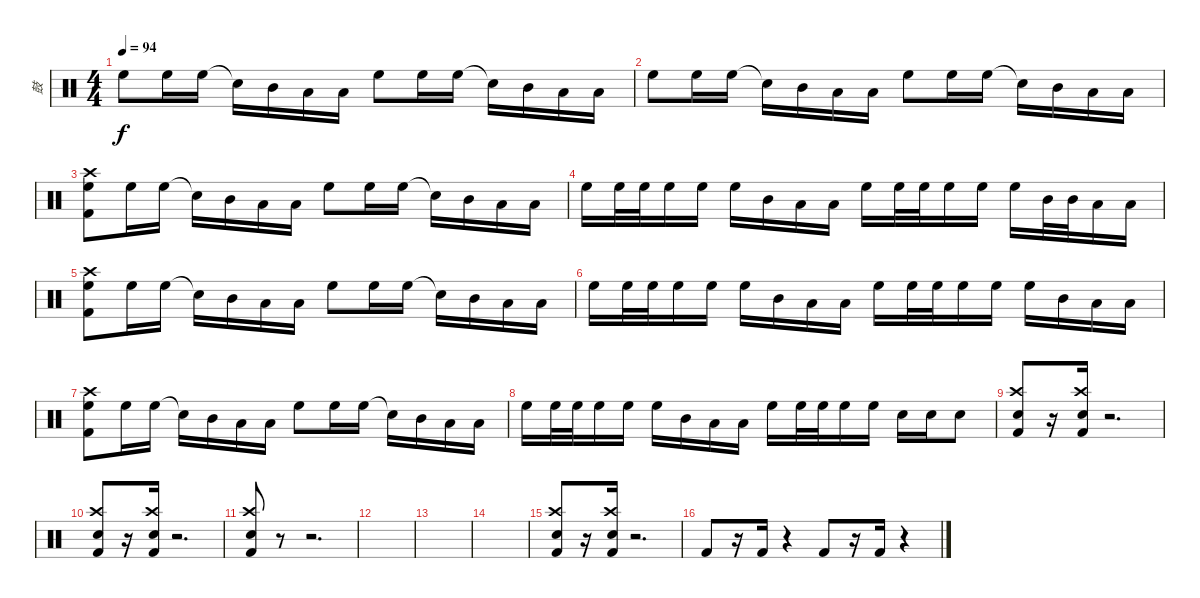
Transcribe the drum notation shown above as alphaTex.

\track ("鼓" "鼓") {instrument percussion}
\staff {score}
\articulation defaults
\ts (4 4)
\tempo 94
\clef neutral
\ks c "High Floor Tom (hit)".8{dy f} "High Floor Tom (hit)".16 "High Floor Tom (hit)".16 "Snare (hit)"{t}.16 "Mid Tom (hit)".16 "Low Tom (hit)".16 "Low Floor Tom (hit)".16 "High Floor Tom (hit)".8 "High Floor Tom (hit)".16 "High Floor Tom (hit)".16 "Snare (hit)"{t}.16 "Mid Tom (hit)".16 "Low Tom (hit)".16 "Low Floor Tom (hit)".16
|
"High Floor Tom (hit)".8 "High Floor Tom (hit)".16 "High Floor Tom (hit)".16 "Snare (hit)"{t}.16 "Mid Tom (hit)".16 "Low Tom (hit)".16 "Low Floor Tom (hit)".16 "High Floor Tom (hit)".8 "High Floor Tom (hit)".16 "High Floor Tom (hit)".16 "Snare (hit)"{t}.16 "Mid Tom (hit)".16 "Low Tom (hit)".16 "Low Floor Tom (hit)".16 |
("Crash high (hit)" "High Floor Tom (hit)" "Kick (hit) 2").8 "High Floor Tom (hit)".16 "High Floor Tom (hit)".16 "Snare (hit)"{t}.16 "Mid Tom (hit)".16 "Low Tom (hit)".16 "Low Floor Tom (hit)".16 "High Floor Tom (hit)".8 "High Floor Tom (hit)".16 "High Floor Tom (hit)".16 "Snare (hit)"{t}.16 "Mid Tom (hit)".16 "Low Tom (hit)".16 "Low Floor Tom (hit)".16 |
"High Floor Tom (hit)".16 "High Floor Tom (hit)".32 "High Floor Tom (hit)".32 "High Floor Tom (hit)".16 "High Floor Tom (hit)".16 "High Floor Tom (hit)".16 "Mid Tom (hit)".16 "Low Tom (hit)".16 "Low Floor Tom (hit)".16 "High Floor Tom (hit)".16 "High Floor Tom (hit)".32 "High Floor Tom (hit)".32 "High Floor Tom (hit)".16 "High Floor Tom (hit)".16 "High Floor Tom (hit)".16 "Mid Tom (hit)".32 "Mid Tom (hit)".32 "Low Tom (hit)".16 "Low Floor Tom (hit)".16 |
("Crash high (hit)" "High Floor Tom (hit)" "Kick (hit) 2").8 "High Floor Tom (hit)".16 "High Floor Tom (hit)".16 "Snare (hit)"{t}.16 "Mid Tom (hit)".16 "Low Tom (hit)".16 "Low Floor Tom (hit)".16 "High Floor Tom (hit)".8 "High Floor Tom (hit)".16 "High Floor Tom (hit)".16 "Snare (hit)"{t}.16 "Mid Tom (hit)".16 "Low Tom (hit)".16 "Low Floor Tom (hit)".16 |
"High Floor Tom (hit)".16 "High Floor Tom (hit)".32 "High Floor Tom (hit)".32 "High Floor Tom (hit)".16 "High Floor Tom (hit)".16 "High Floor Tom (hit)".16 "Mid Tom (hit)".16 "Low Tom (hit)".16 "Low Floor Tom (hit)".16 "High Floor Tom (hit)".16 "High Floor Tom (hit)".32 "High Floor Tom (hit)".32 "High Floor Tom (hit)".16 "High Floor Tom (hit)".16 "High Floor Tom (hit)".16 "Mid Tom (hit)".16 "Low Tom (hit)".16 "Low Floor Tom (hit)".16 |
("Crash high (hit)" "High Floor Tom (hit)" "Kick (hit) 2").8 "High Floor Tom (hit)".16 "High Floor Tom (hit)".16 "Snare (hit)"{t}.16 "Mid Tom (hit)".16 "Low Tom (hit)".16 "Low Floor Tom (hit)".16 "High Floor Tom (hit)".8 "High Floor Tom (hit)".16 "High Floor Tom (hit)".16 "Snare (hit)"{t}.16 "Mid Tom (hit)".16 "Low Tom (hit)".16 "Low Floor Tom (hit)".16 |
"High Floor Tom (hit)".16 "High Floor Tom (hit)".32 "High Floor Tom (hit)".32 "High Floor Tom (hit)".16 "High Floor Tom (hit)".16 "High Floor Tom (hit)".16 "Mid Tom (hit)".16 "Low Tom (hit)".16 "Low Floor Tom (hit)".16 "High Floor Tom (hit)".16 "High Floor Tom (hit)".32 "High Floor Tom (hit)".32 "High Floor Tom (hit)".16 "High Floor Tom (hit)".16 "Snare (hit) 2".16 "Snare (hit) 2".16 "Snare (hit) 2".8 |
("Crash high (hit)" "Snare (hit) 2" "Kick (hit) 2").8 r.16 ("Crash high (hit)" "Snare (hit) 2" "Kick (hit) 2").16 r.2{d} |
("Crash high (hit)" "Snare (hit) 2" "Kick (hit) 2").8 r.16 ("Crash high (hit)" "Snare (hit) 2" "Kick (hit) 2").16 r.2{d} |
("Crash high (hit)" "Snare (hit) 2" "Kick (hit) 2").8 r.8 r.2{d} |
|
|
|
("Crash high (hit)" "Snare (hit) 2" "Kick (hit) 2").8 r.16 ("Crash high (hit)" "Snare (hit) 2" "Kick (hit) 2").16 r.2{d} |
"Kick (hit) 2".8 r.16 "Kick (hit) 2".16 r.4 "Kick (hit) 2".8 r.16 "Kick (hit) 2".16 r.4
